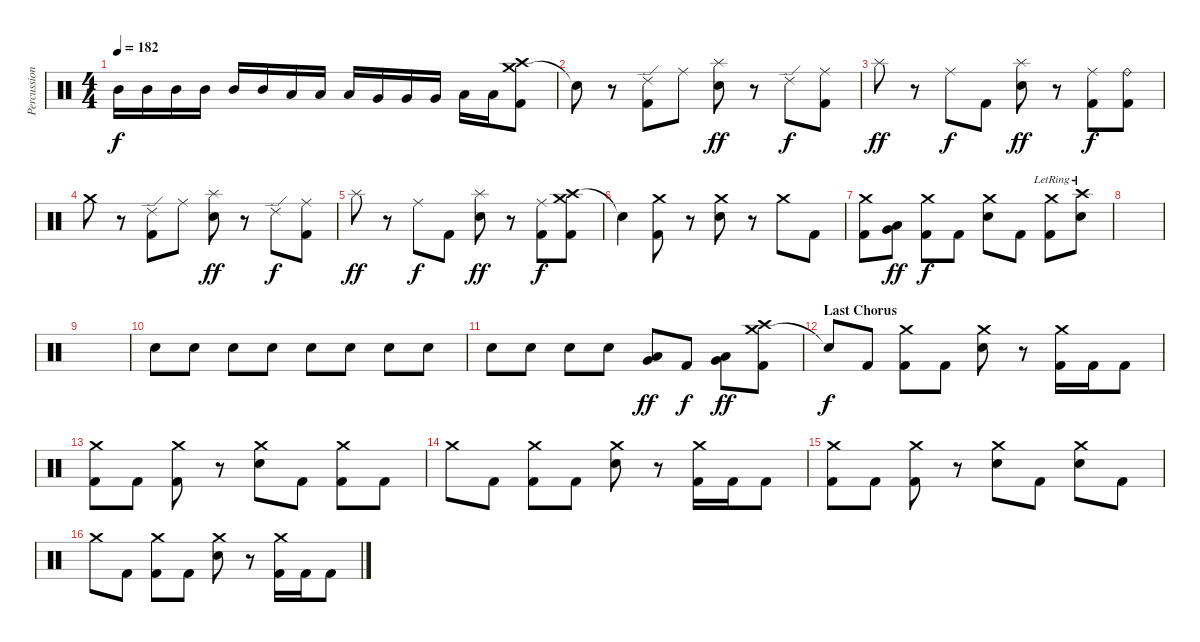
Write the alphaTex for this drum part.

\track ("Percussions" "Percussion") {instrument percussion}
\staff {score}
\articulation defaults
\ts (4 4)
\tempo 182
\clef neutral
\ks c "Mid Tom (hit)".16{dy f} "Mid Tom (hit)".16 "Mid Tom (hit)".16 "Mid Tom (hit)".16 "Mid Tom (hit)".16 "Mid Tom (hit)".16 "Low Tom (hit)".16 "Low Tom (hit)".16 "Low Tom (hit)".16 "Very Low Tom (hit)".16 "Very Low Tom (hit)".16 "Very Low Tom (hit)".16 "Low Floor Tom (hit)".16 "Low Floor Tom (hit)".16
("Crash medium (hit)" "Crash high (hit)" "Kick (hit) 2").8 |
"Snare (hit)"{t}.8 r.8 ("Ride (edge) 2" "Kick (hit) 2").8 "Ride (middle)".8 ("Splash (hit)" "Electric Snare (hit)").8{dy ff} r.8 "Ride (edge) 2".8{dy f} ("Ride (middle)" "Kick (hit) 2").8 |
"Splash (hit)".8{dy ff} r.8 "Ride (middle)".8{dy f} "Kick (hit) 2".8 ("Splash (hit)" "Electric Snare (hit)").8{dy ff} r.8 ("Ride (middle)" "Kick (hit) 2").8{dy f} ("Ride (bell)" "Kick (hit) 2").8 |
"Crash medium (hit)".8 r.8 ("Ride (edge) 2" "Kick (hit) 2").8 "Ride (middle)".8 ("Splash (hit)" "Electric Snare (hit)").8{dy ff} r.8 "Ride (edge) 2".8{dy f} ("Ride (middle)" "Kick (hit) 2").8 |
"Splash (hit)".8{dy ff} r.8 "Ride (middle)".8{dy f} "Kick (hit) 2".8 ("Splash (hit)" "Electric Snare (hit)").8{dy ff} r.8 ("Ride (middle)" "Kick (hit) 2").8{dy f} ("Crash high (hit)" "Crash medium (hit)" "Kick (hit) 2").8 |
"Snare (hit)"{t}.4 ("Crash medium (hit)" "Kick (hit) 2").8 r.8 ("Crash medium (hit)" "Electric Snare (hit)").8 r.8 "Crash medium (hit)".8 "Kick (hit) 2".8 |
("Crash medium (hit)" "Kick (hit) 2").8 ("Very Low Tom (hit)" "Low Tom (hit)").8{dy ff} ("Crash medium (hit)" "Kick (hit) 2").8{dy f} "Kick (hit) 2".8 ("Crash medium (hit)" "Electric Snare (hit)").8 "Kick (hit) 2".8 ("Crash medium (hit)"{lr} "Kick (hit) 2").8 ("Crash high (hit)"{lr} "Electric Snare (hit)").8 |
|
|
"Electric Snare (hit)".8 "Electric Snare (hit)".8 "Electric Snare (hit)".8 "Electric Snare (hit)".8 "Electric Snare (hit)".8 "Electric Snare (hit)".8 "Electric Snare (hit)".8 "Electric Snare (hit)".8 |
"Electric Snare (hit)".8 "Electric Snare (hit)".8 "Electric Snare (hit)".8 "Electric Snare (hit)".8 ("Low Tom (hit)" "Very Low Tom (hit)").8{dy ff} "Kick (hit) 2".8{dy f} ("Very Low Tom (hit)" "Low Floor Tom (hit)").8{dy ff} ("Crash medium (hit)" "Crash high (hit)" "Kick (hit) 2").8 |
\section ("" "Last Chorus")
"Snare (hit)"{t}.8{dy f} "Kick (hit) 2".8 ("Crash medium (hit)" "Kick (hit) 2").8 "Kick (hit) 2".8 ("Crash medium (hit)" "Electric Snare (hit)").8 r.8 ("Crash medium (hit)" "Kick (hit) 2").16 "Kick (hit) 2".16 "Kick (hit) 2".8 |
("Crash medium (hit)" "Kick (hit) 2").8 "Kick (hit) 2".8 ("Crash medium (hit)" "Kick (hit) 2").8 r.8 ("Crash medium (hit)" "Electric Snare (hit)").8 "Kick (hit) 2".8 ("Crash medium (hit)" "Kick (hit) 2").8 "Kick (hit) 2".8 |
"Crash medium (hit)".8 "Kick (hit) 2".8 ("Crash medium (hit)" "Kick (hit) 2").8 "Kick (hit) 2".8 ("Crash medium (hit)" "Electric Snare (hit)").8 r.8 ("Crash medium (hit)" "Kick (hit) 2").16 "Kick (hit) 2".16 "Kick (hit) 2".8 |
("Crash medium (hit)" "Kick (hit) 2").8 "Kick (hit) 2".8 ("Crash medium (hit)" "Kick (hit) 2").8 r.8 ("Crash medium (hit)" "Electric Snare (hit)").8 "Kick (hit) 2".8 ("Crash medium (hit)" "Electric Snare (hit)").8 "Kick (hit) 2".8 |
"Crash medium (hit)".8 "Kick (hit) 2".8 ("Crash medium (hit)" "Kick (hit) 2").8 "Kick (hit) 2".8 ("Crash medium (hit)" "Electric Snare (hit)").8 r.8 ("Crash medium (hit)" "Kick (hit) 2").16 "Kick (hit) 2".16 "Kick (hit) 2".8
